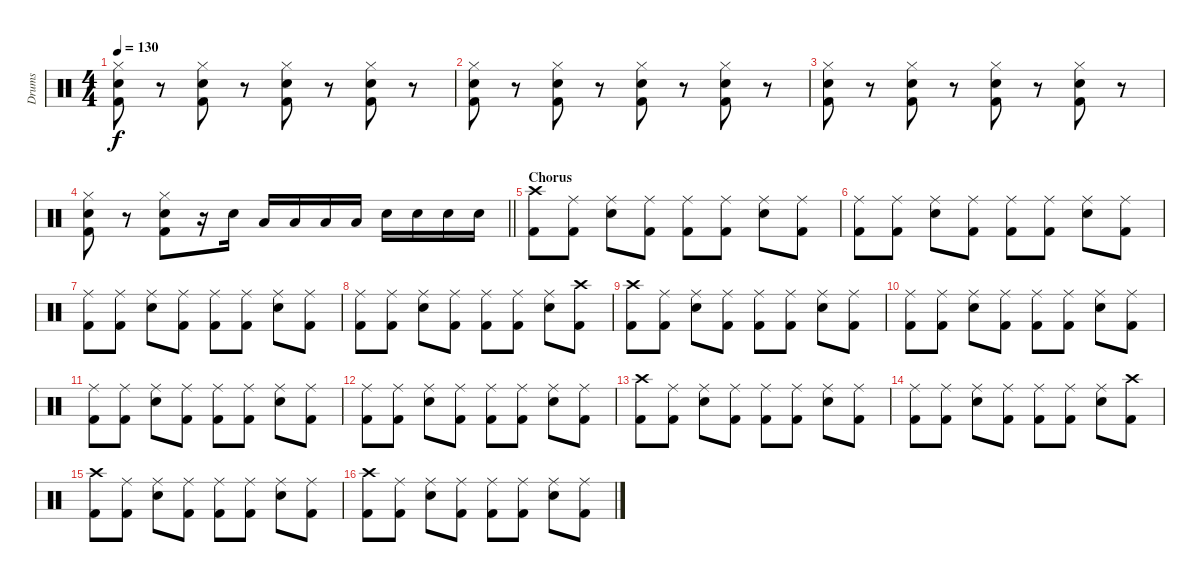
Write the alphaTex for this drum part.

\track ("Drums" "Drums") {instrument percussion}
\staff {score}
\articulation defaults
\ts (4 4)
\tempo 130
\clef neutral
\ks c
("Hi-Hat (closed)" "Snare (hit) 2" "Kick (hit) 2").8{dy f} r.8 ("Hi-Hat (closed)" "Snare (hit) 2" "Kick (hit) 2").8 r.8 ("Hi-Hat (closed)" "Snare (hit) 2" "Kick (hit) 2").8 r.8 ("Hi-Hat (closed)" "Snare (hit) 2" "Kick (hit) 2").8 r.8 |
("Hi-Hat (closed)" "Snare (hit) 2" "Kick (hit) 2").8 r.8 ("Hi-Hat (closed)" "Snare (hit) 2" "Kick (hit) 2").8 r.8 ("Hi-Hat (closed)" "Snare (hit) 2" "Kick (hit) 2").8 r.8 ("Hi-Hat (closed)" "Snare (hit) 2" "Kick (hit) 2").8 r.8 |
("Hi-Hat (closed)" "Snare (hit) 2" "Kick (hit) 2").8 r.8 ("Hi-Hat (closed)" "Snare (hit) 2" "Kick (hit) 2").8 r.8 ("Hi-Hat (closed)" "Snare (hit) 2" "Kick (hit) 2").8 r.8 ("Hi-Hat (closed)" "Snare (hit) 2" "Kick (hit) 2").8 r.8 |
\barLineRight lightlight
("Hi-Hat (closed)" "Snare (hit) 2" "Kick (hit) 2").8 r.8 ("Hi-Hat (closed)" "Snare (hit) 2" "Kick (hit) 2").8 r.16 "Snare (hit) 2".16 "Low Tom (hit)".16 "Low Tom (hit)".16 "Low Tom (hit)".16 "Low Tom (hit)".16 "Snare (hit) 2".16 "Snare (hit) 2".16 "Snare (hit) 2".16 "Snare (hit) 2".16 |
\section ("" "Chorus")
("Crash high (hit)" "Kick (hit) 2").8 ("Ride (middle)" "Kick (hit) 2").8 ("Ride (middle)" "Snare (hit) 2").8 ("Ride (middle)" "Kick (hit) 2").8 ("Ride (middle)" "Kick (hit) 2").8 ("Ride (middle)" "Kick (hit) 2").8 ("Ride (middle)" "Snare (hit) 2").8 ("Ride (middle)" "Kick (hit) 2").8 |
("Ride (middle)" "Kick (hit) 2").8 ("Ride (middle)" "Kick (hit) 2").8 ("Ride (middle)" "Snare (hit) 2").8 ("Ride (middle)" "Kick (hit) 2").8 ("Ride (middle)" "Kick (hit) 2").8 ("Ride (middle)" "Kick (hit) 2").8 ("Ride (middle)" "Snare (hit) 2").8 ("Ride (middle)" "Kick (hit) 2").8 |
("Ride (middle)" "Kick (hit) 2").8 ("Ride (middle)" "Kick (hit) 2").8 ("Ride (middle)" "Snare (hit) 2").8 ("Ride (middle)" "Kick (hit) 2").8 ("Ride (middle)" "Kick (hit) 2").8 ("Ride (middle)" "Kick (hit) 2").8 ("Ride (middle)" "Snare (hit) 2").8 ("Ride (middle)" "Kick (hit) 2").8 |
("Ride (middle)" "Kick (hit) 2").8 ("Ride (middle)" "Kick (hit) 2").8 ("Ride (middle)" "Snare (hit) 2").8 ("Ride (middle)" "Kick (hit) 2").8 ("Ride (middle)" "Kick (hit) 2").8 ("Ride (middle)" "Kick (hit) 2").8 ("Ride (middle)" "Snare (hit) 2").8 ("Crash high (hit)" "Kick (hit) 2").8 |
("Crash high (hit)" "Kick (hit) 2").8 ("Ride (middle)" "Kick (hit) 2").8 ("Ride (middle)" "Snare (hit) 2").8 ("Ride (middle)" "Kick (hit) 2").8 ("Ride (middle)" "Kick (hit) 2").8 ("Ride (middle)" "Kick (hit) 2").8 ("Ride (middle)" "Snare (hit) 2").8 ("Ride (middle)" "Kick (hit) 2").8 |
("Ride (middle)" "Kick (hit) 2").8 ("Ride (middle)" "Kick (hit) 2").8 ("Ride (middle)" "Snare (hit) 2").8 ("Ride (middle)" "Kick (hit) 2").8 ("Ride (middle)" "Kick (hit) 2").8 ("Ride (middle)" "Kick (hit) 2").8 ("Ride (middle)" "Snare (hit) 2").8 ("Ride (middle)" "Kick (hit) 2").8 |
("Ride (middle)" "Kick (hit) 2").8 ("Ride (middle)" "Kick (hit) 2").8 ("Ride (middle)" "Snare (hit) 2").8 ("Ride (middle)" "Kick (hit) 2").8 ("Ride (middle)" "Kick (hit) 2").8 ("Ride (middle)" "Kick (hit) 2").8 ("Ride (middle)" "Snare (hit) 2").8 ("Ride (middle)" "Kick (hit) 2").8 |
("Ride (middle)" "Kick (hit) 2").8 ("Ride (middle)" "Kick (hit) 2").8 ("Ride (middle)" "Snare (hit) 2").8 ("Ride (middle)" "Kick (hit) 2").8 ("Ride (middle)" "Kick (hit) 2").8 ("Ride (middle)" "Kick (hit) 2").8 ("Ride (middle)" "Snare (hit) 2").8 ("Ride (middle)" "Kick (hit) 2").8 |
("Crash high (hit)" "Kick (hit) 2").8 ("Ride (middle)" "Kick (hit) 2").8 ("Ride (middle)" "Snare (hit) 2").8 ("Ride (middle)" "Kick (hit) 2").8 ("Ride (middle)" "Kick (hit) 2").8 ("Ride (middle)" "Kick (hit) 2").8 ("Ride (middle)" "Snare (hit) 2").8 ("Ride (middle)" "Kick (hit) 2").8 |
("Ride (middle)" "Kick (hit) 2").8 ("Ride (middle)" "Kick (hit) 2").8 ("Ride (middle)" "Snare (hit) 2").8 ("Ride (middle)" "Kick (hit) 2").8 ("Ride (middle)" "Kick (hit) 2").8 ("Ride (middle)" "Kick (hit) 2").8 ("Ride (middle)" "Snare (hit) 2").8 ("Crash high (hit)" "Kick (hit) 2").8 |
("Crash high (hit)" "Kick (hit) 2").8 ("Ride (middle)" "Kick (hit) 2").8 ("Ride (middle)" "Snare (hit) 2").8 ("Ride (middle)" "Kick (hit) 2").8 ("Ride (middle)" "Kick (hit) 2").8 ("Ride (middle)" "Kick (hit) 2").8 ("Ride (middle)" "Snare (hit) 2").8 ("Ride (middle)" "Kick (hit) 2").8 |
("Crash high (hit)" "Kick (hit) 2").8 ("Ride (middle)" "Kick (hit) 2").8 ("Ride (middle)" "Snare (hit) 2").8 ("Ride (middle)" "Kick (hit) 2").8 ("Ride (middle)" "Kick (hit) 2").8 ("Ride (middle)" "Kick (hit) 2").8 ("Ride (middle)" "Snare (hit) 2").8 ("Ride (middle)" "Kick (hit) 2").8
